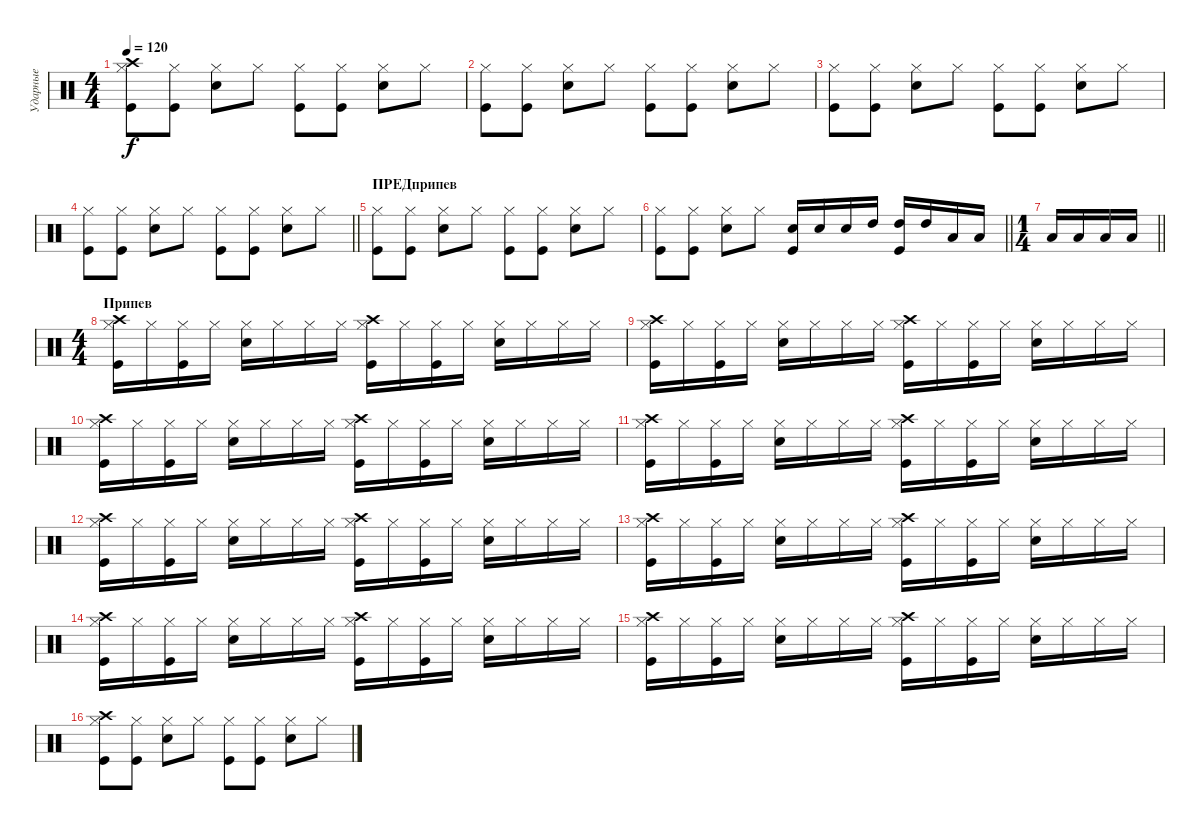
\track ("Ударные" "Ударные") {instrument percussion}
\staff {score}
\articulation defaults
\ts (4 4)
\tempo 120
\clef neutral
\ks c
("Kick (hit)" "Crash high (hit)" "Hi-Hat (closed)").8{dy f} ("Kick (hit)" "Hi-Hat (closed)").8 ("Snare (hit) 2" "Hi-Hat (closed)").8 "Hi-Hat (closed)".8 ("Kick (hit)" "Hi-Hat (closed)").8 ("Kick (hit)" "Hi-Hat (closed)").8 ("Snare (hit) 2" "Hi-Hat (closed)").8 "Hi-Hat (closed)".8 |
("Kick (hit)" "Hi-Hat (closed)").8 ("Kick (hit)" "Hi-Hat (closed)").8 ("Snare (hit) 2" "Hi-Hat (closed)").8 "Hi-Hat (closed)".8 ("Kick (hit)" "Hi-Hat (closed)").8 ("Kick (hit)" "Hi-Hat (closed)").8 ("Snare (hit) 2" "Hi-Hat (closed)").8 "Hi-Hat (closed)".8 |
("Kick (hit)" "Hi-Hat (closed)").8 ("Kick (hit)" "Hi-Hat (closed)").8 ("Snare (hit) 2" "Hi-Hat (closed)").8 "Hi-Hat (closed)".8 ("Kick (hit)" "Hi-Hat (closed)").8 ("Kick (hit)" "Hi-Hat (closed)").8 ("Snare (hit) 2" "Hi-Hat (closed)").8 "Hi-Hat (closed)".8 |
\barLineRight lightlight
("Kick (hit)" "Hi-Hat (closed)").8 ("Kick (hit)" "Hi-Hat (closed)").8 ("Snare (hit) 2" "Hi-Hat (closed)").8 "Hi-Hat (closed)".8 ("Kick (hit)" "Hi-Hat (closed)").8 ("Kick (hit)" "Hi-Hat (closed)").8 ("Snare (hit) 2" "Hi-Hat (closed)").8 "Hi-Hat (closed)".8 |
\section ("" "ПРЕДприпев")
("Kick (hit)" "Hi-Hat (closed)").8 ("Kick (hit)" "Hi-Hat (closed)").8 ("Snare (hit) 2" "Hi-Hat (closed)").8 "Hi-Hat (closed)".8 ("Kick (hit)" "Hi-Hat (closed)").8 ("Kick (hit)" "Hi-Hat (closed)").8 ("Snare (hit) 2" "Hi-Hat (closed)").8 "Hi-Hat (closed)".8 |
\barLineRight lightlight
("Kick (hit)" "Hi-Hat (closed)").8 ("Kick (hit)" "Hi-Hat (closed)").8 ("Snare (hit) 2" "Hi-Hat (closed)").8 "Hi-Hat (closed)".8 ("Snare (hit) 2" "Kick (hit)").16 "Snare (hit) 2".16 "Snare (hit) 2".16 "High Tom (hit)".16 ("High Tom (hit)" "Kick (hit)").16 "High Tom (hit)".16 "Low Tom (hit)".16 "Low Tom (hit)".16 |
\ts (1 4)
\barLineRight lightlight "Low Tom (hit)".16 "Low Floor Tom (hit)".16 "Low Floor Tom (hit)".16 "Low Floor Tom (hit)".16
|
\ts (4 4)
\section ("" "Припев")
("Hi-Hat (closed)" "Kick (hit)" "Crash high (hit)").16 "Hi-Hat (closed)".16 ("Hi-Hat (closed)" "Kick (hit)").16 "Hi-Hat (closed)".16 ("Hi-Hat (closed)" "Snare (hit) 2").16 "Hi-Hat (closed)".16 "Hi-Hat (closed)".16 "Hi-Hat (closed)".16 ("Hi-Hat (closed)" "Kick (hit)" "Crash high (hit)").16 "Hi-Hat (closed)".16 ("Hi-Hat (closed)" "Kick (hit)").16 "Hi-Hat (closed)".16 ("Hi-Hat (closed)" "Snare (hit) 2").16 "Hi-Hat (closed)".16 "Hi-Hat (closed)".16 "Hi-Hat (closed)".16 |
("Hi-Hat (closed)" "Kick (hit)" "Crash high (hit)").16 "Hi-Hat (closed)".16 ("Hi-Hat (closed)" "Kick (hit)").16 "Hi-Hat (closed)".16 ("Hi-Hat (closed)" "Snare (hit) 2").16 "Hi-Hat (closed)".16 "Hi-Hat (closed)".16 "Hi-Hat (closed)".16 ("Hi-Hat (closed)" "Kick (hit)" "Crash high (hit)").16 "Hi-Hat (closed)".16 ("Hi-Hat (closed)" "Kick (hit)").16 "Hi-Hat (closed)".16 ("Hi-Hat (closed)" "Snare (hit) 2").16 "Hi-Hat (closed)".16 "Hi-Hat (closed)".16 "Hi-Hat (closed)".16 |
("Hi-Hat (closed)" "Kick (hit)" "Crash high (hit)").16 "Hi-Hat (closed)".16 ("Hi-Hat (closed)" "Kick (hit)").16 "Hi-Hat (closed)".16 ("Hi-Hat (closed)" "Snare (hit) 2").16 "Hi-Hat (closed)".16 "Hi-Hat (closed)".16 "Hi-Hat (closed)".16 ("Hi-Hat (closed)" "Kick (hit)" "Crash high (hit)").16 "Hi-Hat (closed)".16 ("Hi-Hat (closed)" "Kick (hit)").16 "Hi-Hat (closed)".16 ("Hi-Hat (closed)" "Snare (hit) 2").16 "Hi-Hat (closed)".16 "Hi-Hat (closed)".16 "Hi-Hat (closed)".16 |
("Hi-Hat (closed)" "Kick (hit)" "Crash high (hit)").16 "Hi-Hat (closed)".16 ("Hi-Hat (closed)" "Kick (hit)").16 "Hi-Hat (closed)".16 ("Hi-Hat (closed)" "Snare (hit) 2").16 "Hi-Hat (closed)".16 "Hi-Hat (closed)".16 "Hi-Hat (closed)".16 ("Hi-Hat (closed)" "Kick (hit)" "Crash high (hit)").16 "Hi-Hat (closed)".16 ("Hi-Hat (closed)" "Kick (hit)").16 "Hi-Hat (closed)".16 ("Hi-Hat (closed)" "Snare (hit) 2").16 "Hi-Hat (closed)".16 "Hi-Hat (closed)".16 "Hi-Hat (closed)".16 |
("Hi-Hat (closed)" "Kick (hit)" "Crash high (hit)").16 "Hi-Hat (closed)".16 ("Hi-Hat (closed)" "Kick (hit)").16 "Hi-Hat (closed)".16 ("Hi-Hat (closed)" "Snare (hit) 2").16 "Hi-Hat (closed)".16 "Hi-Hat (closed)".16 "Hi-Hat (closed)".16 ("Hi-Hat (closed)" "Kick (hit)" "Crash high (hit)").16 "Hi-Hat (closed)".16 ("Hi-Hat (closed)" "Kick (hit)").16 "Hi-Hat (closed)".16 ("Hi-Hat (closed)" "Snare (hit) 2").16 "Hi-Hat (closed)".16 "Hi-Hat (closed)".16 "Hi-Hat (closed)".16 |
("Hi-Hat (closed)" "Kick (hit)" "Crash high (hit)").16 "Hi-Hat (closed)".16 ("Hi-Hat (closed)" "Kick (hit)").16 "Hi-Hat (closed)".16 ("Hi-Hat (closed)" "Snare (hit) 2").16 "Hi-Hat (closed)".16 "Hi-Hat (closed)".16 "Hi-Hat (closed)".16 ("Hi-Hat (closed)" "Kick (hit)" "Crash high (hit)").16 "Hi-Hat (closed)".16 ("Hi-Hat (closed)" "Kick (hit)").16 "Hi-Hat (closed)".16 ("Hi-Hat (closed)" "Snare (hit) 2").16 "Hi-Hat (closed)".16 "Hi-Hat (closed)".16 "Hi-Hat (closed)".16 |
("Hi-Hat (closed)" "Kick (hit)" "Crash high (hit)").16 "Hi-Hat (closed)".16 ("Hi-Hat (closed)" "Kick (hit)").16 "Hi-Hat (closed)".16 ("Hi-Hat (closed)" "Snare (hit) 2").16 "Hi-Hat (closed)".16 "Hi-Hat (closed)".16 "Hi-Hat (closed)".16 ("Hi-Hat (closed)" "Kick (hit)" "Crash high (hit)").16 "Hi-Hat (closed)".16 ("Hi-Hat (closed)" "Kick (hit)").16 "Hi-Hat (closed)".16 ("Hi-Hat (closed)" "Snare (hit) 2").16 "Hi-Hat (closed)".16 "Hi-Hat (closed)".16 "Hi-Hat (closed)".16 |
("Hi-Hat (closed)" "Kick (hit)" "Crash high (hit)").16 "Hi-Hat (closed)".16 ("Hi-Hat (closed)" "Kick (hit)").16 "Hi-Hat (closed)".16 ("Hi-Hat (closed)" "Snare (hit) 2").16 "Hi-Hat (closed)".16 "Hi-Hat (closed)".16 "Hi-Hat (closed)".16 ("Hi-Hat (closed)" "Kick (hit)" "Crash high (hit)").16 "Hi-Hat (closed)".16 ("Hi-Hat (closed)" "Kick (hit)").16 "Hi-Hat (closed)".16 ("Hi-Hat (closed)" "Snare (hit) 2").16 "Hi-Hat (closed)".16 "Hi-Hat (closed)".16 "Hi-Hat (closed)".16 |
("Kick (hit)" "Crash high (hit)" "Hi-Hat (closed)").8 ("Kick (hit)" "Hi-Hat (closed)").8 ("Snare (hit) 2" "Hi-Hat (closed)").8 "Hi-Hat (closed)".8 ("Kick (hit)" "Hi-Hat (closed)").8 ("Kick (hit)" "Hi-Hat (closed)").8 ("Snare (hit) 2" "Hi-Hat (closed)").8 "Hi-Hat (closed)".8
